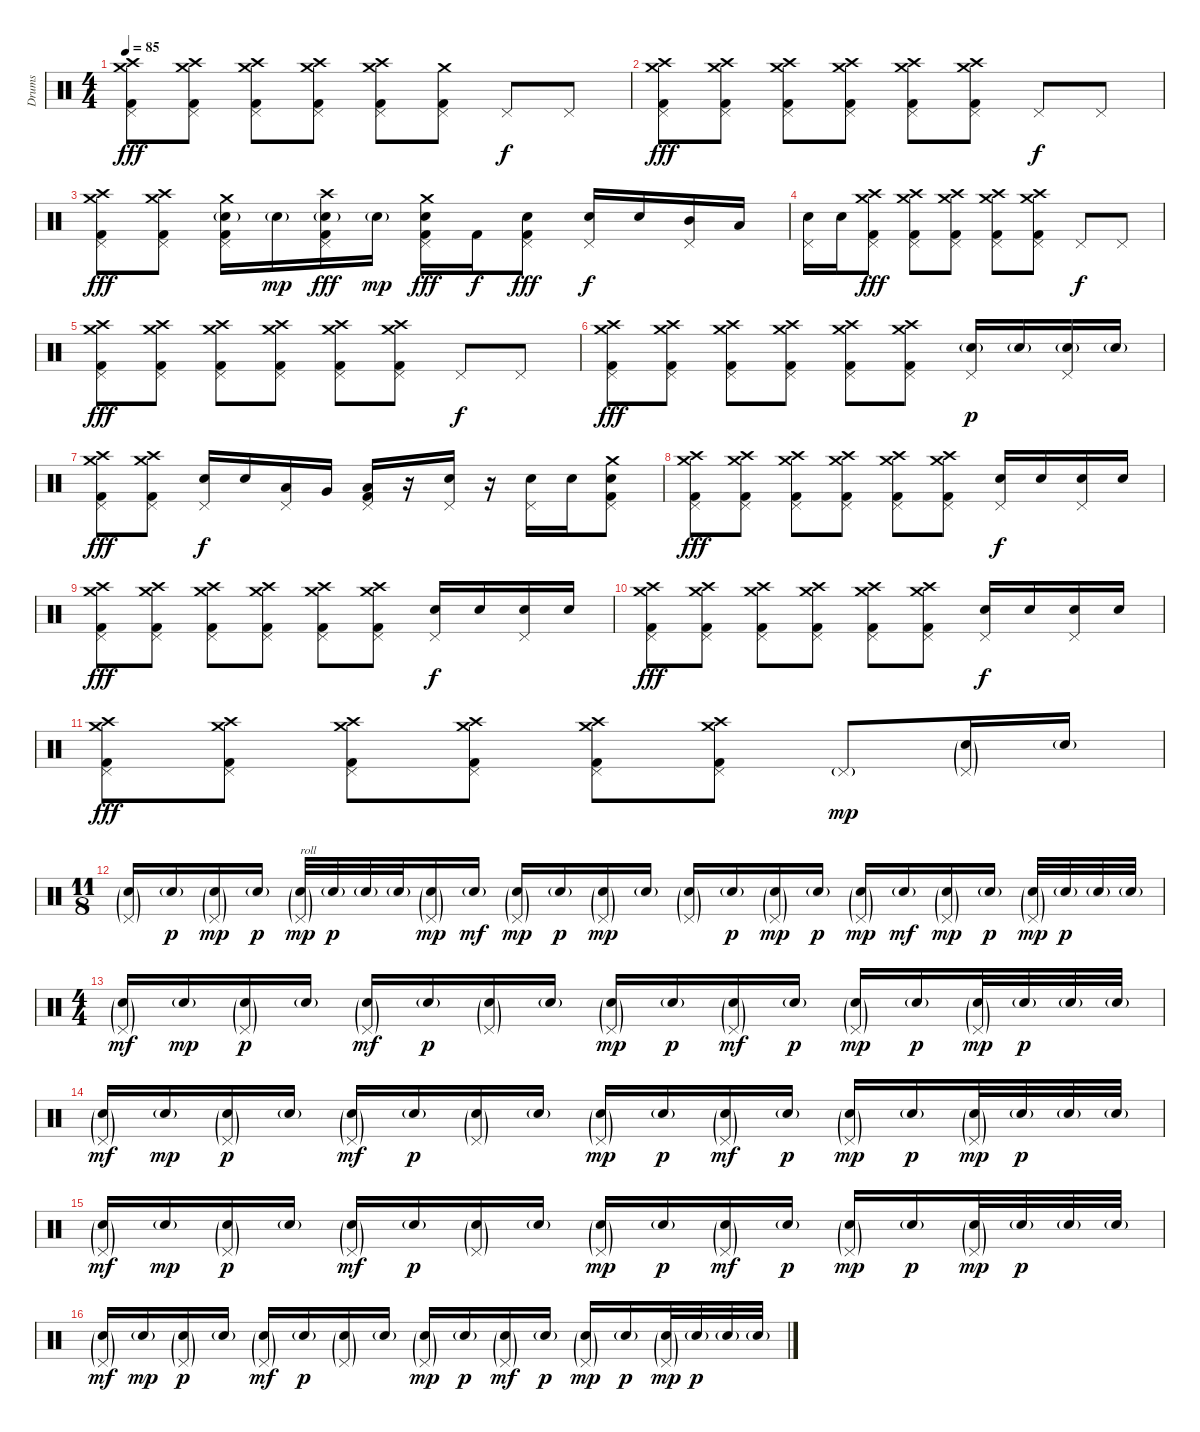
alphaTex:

\track ("Drums" "Drums") {instrument percussion}
\staff {score}
\articulation defaults
\ts (4 4)
\tempo 85
\clef neutral
\ks c
("Crash medium (hit)" "Crash high (hit)" "Pedal Hi-Hat (hit)" "Kick (hit) 2").8{dy fff} ("Crash medium (hit)" "Crash high (hit)" "Pedal Hi-Hat (hit)" "Kick (hit) 2").8 ("Crash medium (hit)" "Crash high (hit)" "Pedal Hi-Hat (hit)" "Kick (hit) 2").8 ("Crash medium (hit)" "Crash high (hit)" "Pedal Hi-Hat (hit)" "Kick (hit) 2").8 ("Crash medium (hit)" "Crash high (hit)" "Pedal Hi-Hat (hit)" "Kick (hit) 2").8 ("Crash medium (hit)" "Pedal Hi-Hat (hit)" "Kick (hit) 2").8 "Pedal Hi-Hat (hit)".8{dy f} "Pedal Hi-Hat (hit)".8 |
("Crash medium (hit)" "Crash high (hit)" "Pedal Hi-Hat (hit)" "Kick (hit) 2").8{dy fff} ("Crash medium (hit)" "Crash high (hit)" "Pedal Hi-Hat (hit)" "Kick (hit) 2").8 ("Crash medium (hit)" "Crash high (hit)" "Pedal Hi-Hat (hit)" "Kick (hit) 2").8 ("Crash medium (hit)" "Crash high (hit)" "Pedal Hi-Hat (hit)" "Kick (hit) 2").8 ("Crash medium (hit)" "Crash high (hit)" "Pedal Hi-Hat (hit)" "Kick (hit) 2").8 ("Crash medium (hit)" "Crash high (hit)" "Pedal Hi-Hat (hit)" "Kick (hit) 2").8 "Pedal Hi-Hat (hit)".8{dy f} "Pedal Hi-Hat (hit)".8 |
("Crash medium (hit)" "Crash high (hit)" "Pedal Hi-Hat (hit)" "Kick (hit) 2").8{dy fff} ("Crash medium (hit)" "Crash high (hit)" "Pedal Hi-Hat (hit)" "Kick (hit) 2").8 ("Crash medium (hit)" "Electric Snare (hit)"{g} "Pedal Hi-Hat (hit)" "Kick (hit) 2").16 "Electric Snare (hit)"{g}.16{dy mp} ("Crash high (hit)" "Electric Snare (hit)"{g} "Pedal Hi-Hat (hit)" "Kick (hit) 2").16{dy fff} "Electric Snare (hit)"{g}.16{dy mp} ("Crash medium (hit)" "Electric Snare (hit)" "Pedal Hi-Hat (hit)" "Kick (hit) 2").16{dy fff} "Kick (hit) 2".16{dy f} ("Electric Snare (hit)" "Pedal Hi-Hat (hit)" "Kick (hit) 2").8{dy fff} ("Electric Snare (hit)" "Pedal Hi-Hat (hit)").16{dy f} "Electric Snare (hit)".16 ("Mid Tom (hit)" "Pedal Hi-Hat (hit)").16 "Low Tom (hit)".16 |
("Electric Snare (hit)" "Pedal Hi-Hat (hit)").16 "Electric Snare (hit)".16 ("Crash medium (hit)" "Crash high (hit)" "Pedal Hi-Hat (hit)" "Kick (hit) 2").8{dy fff} ("Crash medium (hit)" "Crash high (hit)" "Pedal Hi-Hat (hit)" "Kick (hit) 2").8 ("Crash medium (hit)" "Crash high (hit)" "Pedal Hi-Hat (hit)" "Kick (hit) 2").8 ("Crash medium (hit)" "Crash high (hit)" "Pedal Hi-Hat (hit)" "Kick (hit) 2").8 ("Crash medium (hit)" "Crash high (hit)" "Pedal Hi-Hat (hit)" "Kick (hit) 2").8 "Pedal Hi-Hat (hit)".8{dy f} "Pedal Hi-Hat (hit)".8 |
("Crash medium (hit)" "Crash high (hit)" "Pedal Hi-Hat (hit)" "Kick (hit) 2").8{dy fff} ("Crash medium (hit)" "Crash high (hit)" "Pedal Hi-Hat (hit)" "Kick (hit) 2").8 ("Crash medium (hit)" "Crash high (hit)" "Pedal Hi-Hat (hit)" "Kick (hit) 2").8 ("Crash medium (hit)" "Crash high (hit)" "Pedal Hi-Hat (hit)" "Kick (hit) 2").8 ("Crash medium (hit)" "Crash high (hit)" "Pedal Hi-Hat (hit)" "Kick (hit) 2").8 ("Crash medium (hit)" "Crash high (hit)" "Pedal Hi-Hat (hit)" "Kick (hit) 2").8 "Pedal Hi-Hat (hit)".8{dy f} "Pedal Hi-Hat (hit)".8 |
("Crash medium (hit)" "Crash high (hit)" "Pedal Hi-Hat (hit)" "Kick (hit) 2").8{dy fff} ("Crash medium (hit)" "Crash high (hit)" "Pedal Hi-Hat (hit)" "Kick (hit) 2").8 ("Crash medium (hit)" "Crash high (hit)" "Pedal Hi-Hat (hit)" "Kick (hit) 2").8 ("Crash medium (hit)" "Crash high (hit)" "Pedal Hi-Hat (hit)" "Kick (hit) 2").8 ("Crash medium (hit)" "Crash high (hit)" "Pedal Hi-Hat (hit)" "Kick (hit) 2").8 ("Crash medium (hit)" "Crash high (hit)" "Pedal Hi-Hat (hit)" "Kick (hit) 2").8 ("Electric Snare (hit)"{g} "Pedal Hi-Hat (hit)").16{dy p} "Electric Snare (hit)"{g}.16 ("Electric Snare (hit)"{g} "Pedal Hi-Hat (hit)").16 "Electric Snare (hit)"{g}.16 |
("Crash medium (hit)" "Crash high (hit)" "Pedal Hi-Hat (hit)" "Kick (hit) 2").8{dy fff} ("Crash medium (hit)" "Crash high (hit)" "Pedal Hi-Hat (hit)" "Kick (hit) 2").8 ("Electric Snare (hit)" "Pedal Hi-Hat (hit)").16{dy f} "Electric Snare (hit)".16 ("Pedal Hi-Hat (hit)" "Low Tom (hit)").16 "Very Low Tom (hit)".16 ("Pedal Hi-Hat (hit)" "Low Floor Tom (hit)" "Kick (hit) 2").16 r.16 ("Electric Snare (hit)" "Pedal Hi-Hat (hit)").16 r.16 ("Electric Snare (hit)" "Pedal Hi-Hat (hit)").16 "Electric Snare (hit)".16 ("Crash medium (hit)" "Electric Snare (hit)" "Pedal Hi-Hat (hit)" "Kick (hit) 2").8 |
("Crash medium (hit)" "Crash high (hit)" "Pedal Hi-Hat (hit)" "Kick (hit) 2").8{dy fff} ("Crash medium (hit)" "Crash high (hit)" "Pedal Hi-Hat (hit)" "Kick (hit) 2").8 ("Crash medium (hit)" "Crash high (hit)" "Pedal Hi-Hat (hit)" "Kick (hit) 2").8 ("Crash medium (hit)" "Crash high (hit)" "Pedal Hi-Hat (hit)" "Kick (hit) 2").8 ("Crash medium (hit)" "Crash high (hit)" "Pedal Hi-Hat (hit)" "Kick (hit) 2").8 ("Crash medium (hit)" "Crash high (hit)" "Pedal Hi-Hat (hit)" "Kick (hit) 2").8 ("Electric Snare (hit)" "Pedal Hi-Hat (hit)").16{dy f} "Electric Snare (hit)".16 ("Electric Snare (hit)" "Pedal Hi-Hat (hit)").16 "Electric Snare (hit)".16 |
("Crash medium (hit)" "Crash high (hit)" "Pedal Hi-Hat (hit)" "Kick (hit) 2").8{dy fff} ("Crash medium (hit)" "Crash high (hit)" "Pedal Hi-Hat (hit)" "Kick (hit) 2").8 ("Crash medium (hit)" "Crash high (hit)" "Pedal Hi-Hat (hit)" "Kick (hit) 2").8 ("Crash medium (hit)" "Crash high (hit)" "Pedal Hi-Hat (hit)" "Kick (hit) 2").8 ("Crash medium (hit)" "Crash high (hit)" "Pedal Hi-Hat (hit)" "Kick (hit) 2").8 ("Crash medium (hit)" "Crash high (hit)" "Pedal Hi-Hat (hit)" "Kick (hit) 2").8 ("Electric Snare (hit)" "Pedal Hi-Hat (hit)").16{dy f} "Electric Snare (hit)".16 ("Electric Snare (hit)" "Pedal Hi-Hat (hit)").16 "Electric Snare (hit)".16 |
("Crash medium (hit)" "Crash high (hit)" "Pedal Hi-Hat (hit)" "Kick (hit) 2").8{dy fff} ("Crash medium (hit)" "Crash high (hit)" "Pedal Hi-Hat (hit)" "Kick (hit) 2").8 ("Crash medium (hit)" "Crash high (hit)" "Pedal Hi-Hat (hit)" "Kick (hit) 2").8 ("Crash medium (hit)" "Crash high (hit)" "Pedal Hi-Hat (hit)" "Kick (hit) 2").8 ("Crash medium (hit)" "Crash high (hit)" "Pedal Hi-Hat (hit)" "Kick (hit) 2").8 ("Crash medium (hit)" "Crash high (hit)" "Pedal Hi-Hat (hit)" "Kick (hit) 2").8 ("Electric Snare (hit)" "Pedal Hi-Hat (hit)").16{dy f} "Electric Snare (hit)".16 ("Electric Snare (hit)" "Pedal Hi-Hat (hit)").16 "Electric Snare (hit)".16 |
("Crash medium (hit)" "Crash high (hit)" "Pedal Hi-Hat (hit)" "Kick (hit) 2").8{dy fff} ("Crash medium (hit)" "Crash high (hit)" "Pedal Hi-Hat (hit)" "Kick (hit) 2").8 ("Crash medium (hit)" "Crash high (hit)" "Pedal Hi-Hat (hit)" "Kick (hit) 2").8 ("Crash medium (hit)" "Crash high (hit)" "Pedal Hi-Hat (hit)" "Kick (hit) 2").8 ("Crash medium (hit)" "Crash high (hit)" "Pedal Hi-Hat (hit)" "Kick (hit) 2").8 ("Crash medium (hit)" "Crash high (hit)" "Pedal Hi-Hat (hit)" "Kick (hit) 2").8 "Pedal Hi-Hat (hit)"{g}.8{dy mp} ("Electric Snare (hit)"{g} "Pedal Hi-Hat (hit)"{g}).16 "Electric Snare (hit)"{g}.16 |
\ts (11 8)
("Electric Snare (hit)"{g} "Pedal Hi-Hat (hit)"{g}).16 "Electric Snare (hit)"{g}.16{dy p} ("Electric Snare (hit)"{g} "Pedal Hi-Hat (hit)"{g}).16{dy mp} "Electric Snare (hit)"{g}.16{dy p} ("Electric Snare (hit)"{g} "Pedal Hi-Hat (hit)"{g}).32{txt "roll" dy mp} "Electric Snare (hit)"{g}.32{dy p} "Electric Snare (hit)"{g}.32 "Electric Snare (hit)"{g}.32 ("Electric Snare (hit)"{g} "Pedal Hi-Hat (hit)"{g}).16{dy mp} "Electric Snare (hit)"{g}.16{dy mf} ("Electric Snare (hit)"{g} "Pedal Hi-Hat (hit)"{g}).16{dy mp} "Electric Snare (hit)"{g}.16{dy p} ("Electric Snare (hit)"{g} "Pedal Hi-Hat (hit)"{g}).16{dy mp} "Electric Snare (hit)"{g}.16 ("Electric Snare (hit)"{g} "Pedal Hi-Hat (hit)"{g}).16 "Electric Snare (hit)"{g}.16{dy p} ("Electric Snare (hit)"{g} "Pedal Hi-Hat (hit)"{g}).16{dy mp} "Electric Snare (hit)"{g}.16{dy p} ("Electric Snare (hit)"{g} "Pedal Hi-Hat (hit)"{g}).16{dy mp} "Electric Snare (hit)"{g}.16{dy mf} ("Electric Snare (hit)"{g} "Pedal Hi-Hat (hit)"{g}).16{dy mp} "Electric Snare (hit)"{g}.16{dy p} ("Electric Snare (hit)"{g} "Pedal Hi-Hat (hit)"{g}).32{dy mp} "Electric Snare (hit)"{g}.32{dy p} "Electric Snare (hit)"{g}.32 "Electric Snare (hit)"{g}.32 |
\ts (4 4)
("Pedal Hi-Hat (hit)"{g} "Electric Snare (hit)"{g}).16{dy mf} "Electric Snare (hit)"{g}.16{dy mp} ("Pedal Hi-Hat (hit)"{g} "Electric Snare (hit)"{g}).16{dy p} "Electric Snare (hit)"{g}.16 ("Pedal Hi-Hat (hit)"{g} "Electric Snare (hit)"{g}).16{dy mf} "Electric Snare (hit)"{g}.16{dy p} ("Pedal Hi-Hat (hit)"{g} "Electric Snare (hit)"{g}).16 "Electric Snare (hit)"{g}.16 ("Pedal Hi-Hat (hit)"{g} "Electric Snare (hit)"{g}).16{dy mp} "Electric Snare (hit)"{g}.16{dy p} ("Pedal Hi-Hat (hit)"{g} "Electric Snare (hit)"{g}).16{dy mf} "Electric Snare (hit)"{g}.16{dy p} ("Pedal Hi-Hat (hit)"{g} "Electric Snare (hit)"{g}).16{dy mp} "Electric Snare (hit)"{g}.16{dy p} ("Pedal Hi-Hat (hit)"{g} "Electric Snare (hit)"{g}).32{dy mp} "Electric Snare (hit)"{g}.32{dy p} "Electric Snare (hit)"{g}.32 "Electric Snare (hit)"{g}.32 |
("Pedal Hi-Hat (hit)"{g} "Electric Snare (hit)"{g}).16{dy mf} "Electric Snare (hit)"{g}.16{dy mp} ("Pedal Hi-Hat (hit)"{g} "Electric Snare (hit)"{g}).16{dy p} "Electric Snare (hit)"{g}.16 ("Pedal Hi-Hat (hit)"{g} "Electric Snare (hit)"{g}).16{dy mf} "Electric Snare (hit)"{g}.16{dy p} ("Pedal Hi-Hat (hit)"{g} "Electric Snare (hit)"{g}).16 "Electric Snare (hit)"{g}.16 ("Pedal Hi-Hat (hit)"{g} "Electric Snare (hit)"{g}).16{dy mp} "Electric Snare (hit)"{g}.16{dy p} ("Pedal Hi-Hat (hit)"{g} "Electric Snare (hit)"{g}).16{dy mf} "Electric Snare (hit)"{g}.16{dy p} ("Pedal Hi-Hat (hit)"{g} "Electric Snare (hit)"{g}).16{dy mp} "Electric Snare (hit)"{g}.16{dy p} ("Pedal Hi-Hat (hit)"{g} "Electric Snare (hit)"{g}).32{dy mp} "Electric Snare (hit)"{g}.32{dy p} "Electric Snare (hit)"{g}.32 "Electric Snare (hit)"{g}.32 |
("Pedal Hi-Hat (hit)"{g} "Electric Snare (hit)"{g}).16{dy mf} "Electric Snare (hit)"{g}.16{dy mp} ("Pedal Hi-Hat (hit)"{g} "Electric Snare (hit)"{g}).16{dy p} "Electric Snare (hit)"{g}.16 ("Pedal Hi-Hat (hit)"{g} "Electric Snare (hit)"{g}).16{dy mf} "Electric Snare (hit)"{g}.16{dy p} ("Pedal Hi-Hat (hit)"{g} "Electric Snare (hit)"{g}).16 "Electric Snare (hit)"{g}.16 ("Pedal Hi-Hat (hit)"{g} "Electric Snare (hit)"{g}).16{dy mp} "Electric Snare (hit)"{g}.16{dy p} ("Pedal Hi-Hat (hit)"{g} "Electric Snare (hit)"{g}).16{dy mf} "Electric Snare (hit)"{g}.16{dy p} ("Pedal Hi-Hat (hit)"{g} "Electric Snare (hit)"{g}).16{dy mp} "Electric Snare (hit)"{g}.16{dy p} ("Pedal Hi-Hat (hit)"{g} "Electric Snare (hit)"{g}).32{dy mp} "Electric Snare (hit)"{g}.32{dy p} "Electric Snare (hit)"{g}.32 "Electric Snare (hit)"{g}.32 |
("Pedal Hi-Hat (hit)"{g} "Electric Snare (hit)"{g}).16{dy mf} "Electric Snare (hit)"{g}.16{dy mp} ("Pedal Hi-Hat (hit)"{g} "Electric Snare (hit)"{g}).16{dy p} "Electric Snare (hit)"{g}.16 ("Pedal Hi-Hat (hit)"{g} "Electric Snare (hit)"{g}).16{dy mf} "Electric Snare (hit)"{g}.16{dy p} ("Pedal Hi-Hat (hit)"{g} "Electric Snare (hit)"{g}).16 "Electric Snare (hit)"{g}.16 ("Pedal Hi-Hat (hit)"{g} "Electric Snare (hit)"{g}).16{dy mp} "Electric Snare (hit)"{g}.16{dy p} ("Pedal Hi-Hat (hit)"{g} "Electric Snare (hit)"{g}).16{dy mf} "Electric Snare (hit)"{g}.16{dy p} ("Pedal Hi-Hat (hit)"{g} "Electric Snare (hit)"{g}).16{dy mp} "Electric Snare (hit)"{g}.16{dy p} ("Pedal Hi-Hat (hit)"{g} "Electric Snare (hit)"{g}).32{dy mp} "Electric Snare (hit)"{g}.32{dy p} "Electric Snare (hit)"{g}.32 "Electric Snare (hit)"{g}.32
